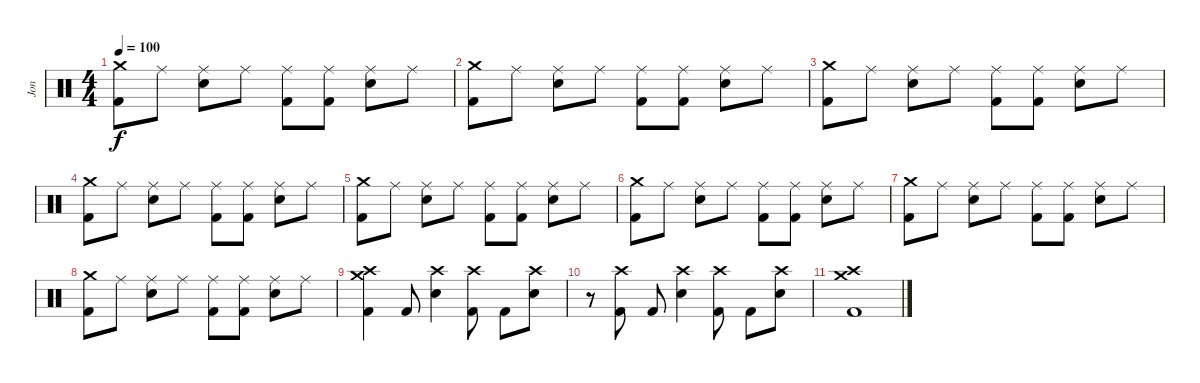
\track ("Jon" "Jon") {instrument percussion}
\staff {score}
\articulation defaults
\ts (4 4)
\tempo 100
\clef neutral
\ks c
("Crash medium (hit)" "Kick (hit) 2").8{dy f} "Ride (middle)".8 ("Ride (middle)" "Snare (hit) 2").8 "Ride (middle)".8 ("Ride (middle)" "Kick (hit) 2").8 ("Ride (middle)" "Kick (hit) 2").8 ("Ride (middle)" "Snare (hit) 2").8 "Ride (middle)".8 |
("Crash medium (hit)" "Kick (hit) 2").8 "Ride (middle)".8 ("Ride (middle)" "Snare (hit) 2").8 "Ride (middle)".8 ("Ride (middle)" "Kick (hit) 2").8 ("Ride (middle)" "Kick (hit) 2").8 ("Ride (middle)" "Snare (hit) 2").8 "Ride (middle)".8 |
("Crash medium (hit)" "Kick (hit) 2").8 "Ride (middle)".8 ("Ride (middle)" "Snare (hit) 2").8 "Ride (middle)".8 ("Ride (middle)" "Kick (hit) 2").8 ("Ride (middle)" "Kick (hit) 2").8 ("Ride (middle)" "Snare (hit) 2").8 "Ride (middle)".8 |
("Crash medium (hit)" "Kick (hit) 2").8 "Ride (middle)".8 ("Ride (middle)" "Snare (hit) 2").8 "Ride (middle)".8 ("Ride (middle)" "Kick (hit) 2").8 ("Ride (middle)" "Kick (hit) 2").8 ("Ride (middle)" "Snare (hit) 2").8 "Ride (middle)".8 |
("Crash medium (hit)" "Kick (hit) 2").8 "Ride (middle)".8 ("Ride (middle)" "Snare (hit) 2").8 "Ride (middle)".8 ("Ride (middle)" "Kick (hit) 2").8 ("Ride (middle)" "Kick (hit) 2").8 ("Ride (middle)" "Snare (hit) 2").8 "Ride (middle)".8 |
("Crash medium (hit)" "Kick (hit) 2").8 "Ride (middle)".8 ("Ride (middle)" "Snare (hit) 2").8 "Ride (middle)".8 ("Ride (middle)" "Kick (hit) 2").8 ("Ride (middle)" "Kick (hit) 2").8 ("Ride (middle)" "Snare (hit) 2").8 "Ride (middle)".8 |
("Crash medium (hit)" "Kick (hit) 2").8 "Ride (middle)".8 ("Ride (middle)" "Snare (hit) 2").8 "Ride (middle)".8 ("Ride (middle)" "Kick (hit) 2").8 ("Ride (middle)" "Kick (hit) 2").8 ("Ride (middle)" "Snare (hit) 2").8 "Ride (middle)".8 |
("Crash medium (hit)" "Kick (hit) 2").8 "Ride (middle)".8 ("Ride (middle)" "Snare (hit) 2").8 "Ride (middle)".8 ("Ride (middle)" "Kick (hit) 2").8 ("Ride (middle)" "Kick (hit) 2").8 ("Ride (middle)" "Snare (hit) 2").8 "Ride (middle)".8 |
("Crash medium (hit)" "Crash high (hit)" "Kick (hit) 2").4 "Kick (hit) 2".8 ("Crash high (hit)" "Snare (hit) 2").4 ("Crash high (hit)" "Kick (hit) 2").8 "Kick (hit) 2".8 ("Crash high (hit)" "Snare (hit) 2").8 |
r.8 ("Crash high (hit)" "Kick (hit) 2").8 "Kick (hit) 2".8 ("Crash high (hit)" "Snare (hit) 2").4 ("Crash high (hit)" "Kick (hit) 2").8 "Kick (hit) 2".8 ("Crash high (hit)" "Snare (hit) 2").8 |
("Crash high (hit)" "Crash medium (hit)" "Kick (hit) 2").1
